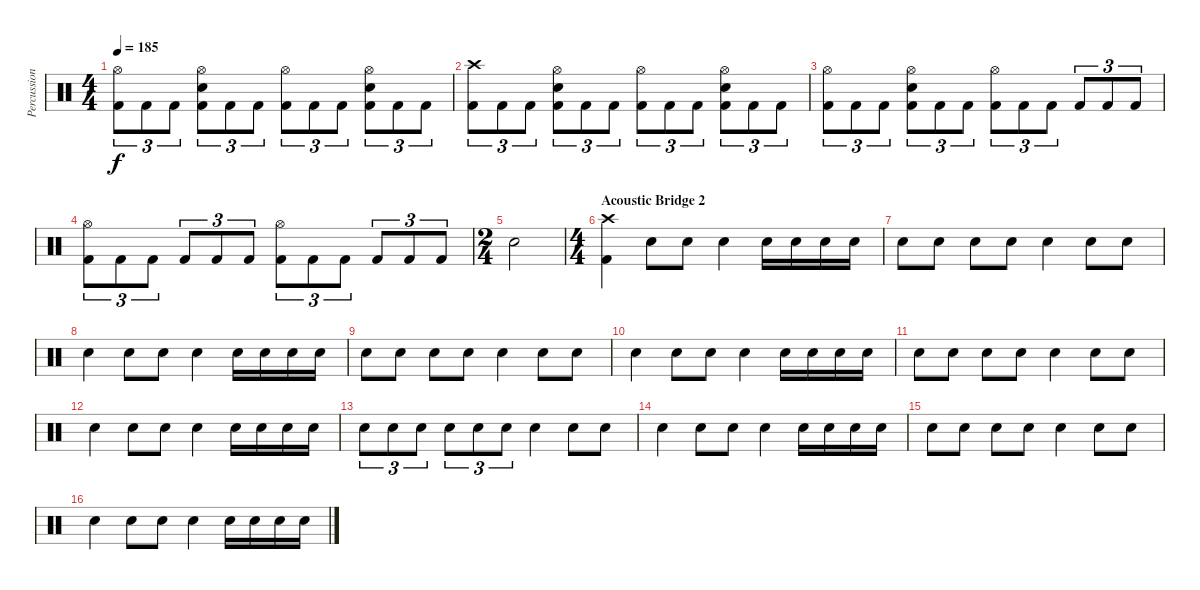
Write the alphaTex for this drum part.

\track ("Percussions" "Percussion") {instrument percussion}
\staff {score}
\articulation defaults
\ts (4 4)
\tempo 185
\clef neutral
\ks c
("Hi-Hat (open)" "Kick (hit) 2").8{tu (3 2) dy f} "Kick (hit) 2".8{tu (3 2)} "Kick (hit) 2".8{tu (3 2)} ("Hi-Hat (open)" "Snare (hit) 2" "Kick (hit) 2").8{tu (3 2)} "Kick (hit) 2".8{tu (3 2)} "Kick (hit) 2".8{tu (3 2)} ("Hi-Hat (open)" "Kick (hit) 2").8{tu (3 2)} "Kick (hit) 2".8{tu (3 2)} "Kick (hit) 2".8{tu (3 2)} ("Hi-Hat (open)" "Snare (hit) 2" "Kick (hit) 2").8{tu (3 2)} "Kick (hit) 2".8{tu (3 2)} "Kick (hit) 2".8{tu (3 2)} |
("Crash high (hit)" "Kick (hit) 2").8{tu (3 2)} "Kick (hit) 2".8{tu (3 2)} "Kick (hit) 2".8{tu (3 2)} ("Hi-Hat (open)" "Snare (hit) 2" "Kick (hit) 2").8{tu (3 2)} "Kick (hit) 2".8{tu (3 2)} "Kick (hit) 2".8{tu (3 2)} ("Hi-Hat (open)" "Kick (hit) 2").8{tu (3 2)} "Kick (hit) 2".8{tu (3 2)} "Kick (hit) 2".8{tu (3 2)} ("Hi-Hat (open)" "Snare (hit) 2" "Kick (hit) 2").8{tu (3 2)} "Kick (hit) 2".8{tu (3 2)} "Kick (hit) 2".8{tu (3 2)} |
("Hi-Hat (open)" "Kick (hit) 2").8{tu (3 2)} "Kick (hit) 2".8{tu (3 2)} "Kick (hit) 2".8{tu (3 2)} ("Hi-Hat (open)" "Snare (hit) 2" "Kick (hit) 2").8{tu (3 2)} "Kick (hit) 2".8{tu (3 2)} "Kick (hit) 2".8{tu (3 2)} ("Hi-Hat (open)" "Kick (hit) 2").8{tu (3 2)} "Kick (hit) 2".8{tu (3 2)} "Kick (hit) 2".8{tu (3 2)} "Kick (hit) 2".8{tu (3 2)} "Kick (hit) 2".8{tu (3 2)} "Kick (hit) 2".8{tu (3 2)} |
("Hi-Hat (open)" "Kick (hit) 2").8{tu (3 2)} "Kick (hit) 2".8{tu (3 2)} "Kick (hit) 2".8{tu (3 2)} "Kick (hit) 2".8{tu (3 2)} "Kick (hit) 2".8{tu (3 2)} "Kick (hit) 2".8{tu (3 2)} ("Hi-Hat (open)" "Kick (hit) 2").8{tu (3 2)} "Kick (hit) 2".8{tu (3 2)} "Kick (hit) 2".8{tu (3 2)} "Kick (hit) 2".8{tu (3 2)} "Kick (hit) 2".8{tu (3 2)} "Kick (hit) 2".8{tu (3 2)} |
\ts (2 4)
"Snare (hit) 2".2 |
\ts (4 4)
\section ("" "Acoustic Bridge 2")
("Crash high (hit)" "Kick (hit) 2").4 "Electric Snare (hit)".8 "Electric Snare (hit)".8 "Electric Snare (hit)".4 "Electric Snare (hit)".16 "Electric Snare (hit)".16 "Electric Snare (hit)".16 "Electric Snare (hit)".16 |
"Electric Snare (hit)".8 "Electric Snare (hit)".8 "Electric Snare (hit)".8 "Electric Snare (hit)".8 "Electric Snare (hit)".4 "Electric Snare (hit)".8 "Electric Snare (hit)".8 |
"Electric Snare (hit)".4 "Electric Snare (hit)".8 "Electric Snare (hit)".8 "Electric Snare (hit)".4 "Electric Snare (hit)".16 "Electric Snare (hit)".16 "Electric Snare (hit)".16 "Electric Snare (hit)".16 |
"Electric Snare (hit)".8 "Electric Snare (hit)".8 "Electric Snare (hit)".8 "Electric Snare (hit)".8 "Electric Snare (hit)".4 "Electric Snare (hit)".8 "Electric Snare (hit)".8 |
"Electric Snare (hit)".4 "Electric Snare (hit)".8 "Electric Snare (hit)".8 "Electric Snare (hit)".4 "Electric Snare (hit)".16 "Electric Snare (hit)".16 "Electric Snare (hit)".16 "Electric Snare (hit)".16 |
"Electric Snare (hit)".8 "Electric Snare (hit)".8 "Electric Snare (hit)".8 "Electric Snare (hit)".8 "Electric Snare (hit)".4 "Electric Snare (hit)".8 "Electric Snare (hit)".8 |
"Electric Snare (hit)".4 "Electric Snare (hit)".8 "Electric Snare (hit)".8 "Electric Snare (hit)".4 "Electric Snare (hit)".16 "Electric Snare (hit)".16 "Electric Snare (hit)".16 "Electric Snare (hit)".16 |
"Electric Snare (hit)".8{tu (3 2)} "Electric Snare (hit)".8{tu (3 2)} "Electric Snare (hit)".8{tu (3 2)} "Electric Snare (hit)".8{tu (3 2)} "Electric Snare (hit)".8{tu (3 2)} "Electric Snare (hit)".8{tu (3 2)} "Electric Snare (hit)".4 "Electric Snare (hit)".8 "Electric Snare (hit)".8 |
"Electric Snare (hit)".4 "Electric Snare (hit)".8 "Electric Snare (hit)".8 "Electric Snare (hit)".4 "Electric Snare (hit)".16 "Electric Snare (hit)".16 "Electric Snare (hit)".16 "Electric Snare (hit)".16 |
"Electric Snare (hit)".8 "Electric Snare (hit)".8 "Electric Snare (hit)".8 "Electric Snare (hit)".8 "Electric Snare (hit)".4 "Electric Snare (hit)".8 "Electric Snare (hit)".8 |
"Electric Snare (hit)".4 "Electric Snare (hit)".8 "Electric Snare (hit)".8 "Electric Snare (hit)".4 "Electric Snare (hit)".16 "Electric Snare (hit)".16 "Electric Snare (hit)".16 "Electric Snare (hit)".16
